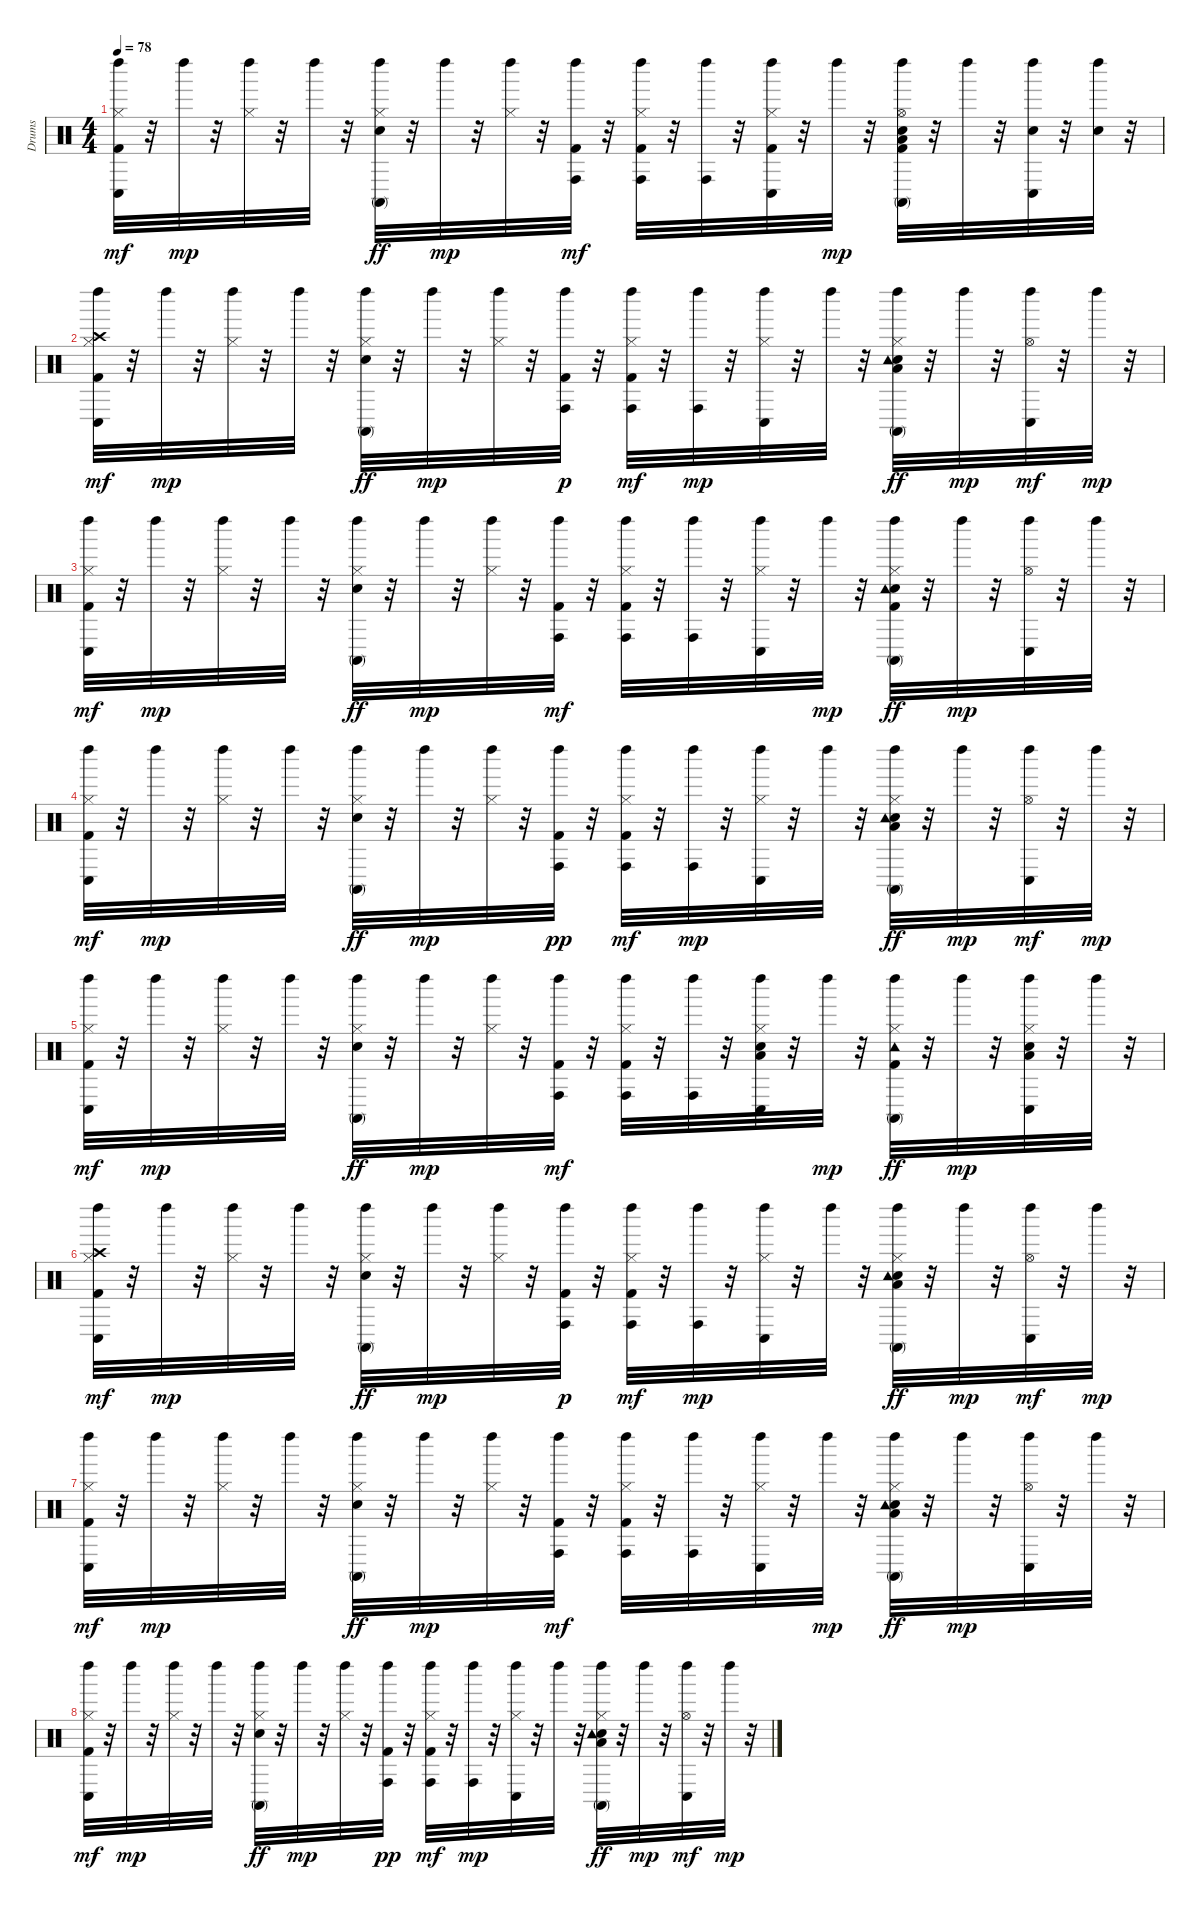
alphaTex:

\track ("Drums               " "Drums     ") {instrument percussion}
\staff {score}
\articulation defaults
\ts (4 4)
\tempo 78
\clef neutral
\ks c
("Kick (hit) 2" "Hi-Hat (closed)" "Left Maraca (hit)" "Conga low (hit)").32{dy mf} r.32 "Left Maraca (hit)".32{dy mp} r.32 ("Hi-Hat (closed)" "Left Maraca (hit)").32 r.32 "Left Maraca (hit)".32 r.32 ("Snare (hit) 2" "Hi-Hat (closed)" "Left Maraca (hit)" "Conga high (mute)").32{dy ff} r.32 "Left Maraca (hit)".32{dy mp} r.32 ("Hi-Hat (closed)" "Left Maraca (hit)").32 r.32 ("Kick (hit) 2" "Left Maraca (hit)" "Conga high (hit)").32{dy mf} r.32 ("Kick (hit) 2" "Hi-Hat (closed)" "Left Maraca (hit)" "Conga high (hit)").32 r.32 ("Left Maraca (hit)" "Conga high (hit)").32 r.32 ("Kick (hit) 2" "Hi-Hat (closed)" "Left Maraca (hit)" "Conga low (hit)").32 r.32 "Left Maraca (hit)".32{dy mp} r.32 ("Kick (hit) 2" "Snare (hit) 2" "Hi-Hat (open)" "Left Maraca (hit)" "Conga high (mute)" "Low Floor Tom (hit)").32 r.32 "Left Maraca (hit)".32 r.32 ("Snare (hit) 2" "Left Maraca (hit)" "Conga low (hit)").32 r.32 ("Snare (hit) 2" "Left Maraca (hit)").32 r.32 |
("Kick (hit) 2" "Hi-Hat (closed)" "Left Maraca (hit)" "Crash high (hit)" "Conga low (hit)").32{dy mf} r.32 "Left Maraca (hit)".32{dy mp} r.32 ("Hi-Hat (closed)" "Left Maraca (hit)").32 r.32 "Left Maraca (hit)".32 r.32 ("Snare (hit) 2" "Hi-Hat (closed)" "Left Maraca (hit)" "Conga high (mute)").32{dy ff} r.32 "Left Maraca (hit)".32{dy mp} r.32 ("Hi-Hat (closed)" "Left Maraca (hit)").32 r.32 ("Kick (hit) 2" "Left Maraca (hit)" "Conga high (hit)").32{dy p} r.32 ("Kick (hit) 2" "Hi-Hat (closed)" "Left Maraca (hit)" "Conga high (hit)").32{dy mf} r.32 ("Left Maraca (hit)" "Conga high (hit)").32{dy mp} r.32 ("Hi-Hat (closed)" "Left Maraca (hit)" "Conga low (hit)").32 r.32 "Left Maraca (hit)".32 r.32 ("Snare (hit) 2" "Hi-Hat (closed)" "Left Maraca (hit)" "Low Floor Tom (hit)" "Conga high (mute)" "Tambourine (hit)").32{dy ff} r.32 "Left Maraca (hit)".32{dy mp} r.32 ("Hi-Hat (open)" "Left Maraca (hit)" "Conga low (hit)").32{dy mf} r.32 "Left Maraca (hit)".32{dy mp} r.32 |
("Kick (hit) 2" "Hi-Hat (closed)" "Left Maraca (hit)" "Conga low (hit)").32{dy mf} r.32 "Left Maraca (hit)".32{dy mp} r.32 ("Hi-Hat (closed)" "Left Maraca (hit)").32 r.32 "Left Maraca (hit)".32 r.32 ("Snare (hit) 2" "Hi-Hat (closed)" "Left Maraca (hit)" "Conga high (mute)").32{dy ff} r.32 "Left Maraca (hit)".32{dy mp} r.32 ("Hi-Hat (closed)" "Left Maraca (hit)").32 r.32 ("Kick (hit) 2" "Left Maraca (hit)" "Conga high (hit)").32{dy mf} r.32 ("Kick (hit) 2" "Hi-Hat (closed)" "Left Maraca (hit)" "Conga high (hit)").32 r.32 ("Left Maraca (hit)" "Conga high (hit)").32 r.32 ("Hi-Hat (closed)" "Left Maraca (hit)" "Conga low (hit)").32 r.32 "Left Maraca (hit)".32{dy mp} r.32 ("Kick (hit) 2" "Snare (hit) 2" "Hi-Hat (closed)" "Left Maraca (hit)" "Conga high (mute)" "Tambourine (hit)").32{dy ff} r.32 "Left Maraca (hit)".32{dy mp} r.32 ("Hi-Hat (open)" "Left Maraca (hit)" "Conga low (hit)").32 r.32 "Left Maraca (hit)".32 r.32 |
("Kick (hit) 2" "Hi-Hat (closed)" "Left Maraca (hit)" "Conga low (hit)").32{dy mf} r.32 "Left Maraca (hit)".32{dy mp} r.32 ("Hi-Hat (closed)" "Left Maraca (hit)").32 r.32 "Left Maraca (hit)".32 r.32 ("Snare (hit) 2" "Hi-Hat (closed)" "Left Maraca (hit)" "Conga high (mute)").32{dy ff} r.32 "Left Maraca (hit)".32{dy mp} r.32 ("Hi-Hat (closed)" "Left Maraca (hit)").32 r.32 ("Kick (hit) 2" "Left Maraca (hit)" "Conga high (hit)").32{dy pp} r.32 ("Kick (hit) 2" "Hi-Hat (closed)" "Left Maraca (hit)" "Conga high (hit)").32{dy mf} r.32 ("Left Maraca (hit)" "Conga high (hit)").32{dy mp} r.32 ("Hi-Hat (closed)" "Left Maraca (hit)" "Conga low (hit)").32 r.32 "Left Maraca (hit)".32 r.32 ("Snare (hit) 2" "Hi-Hat (closed)" "Left Maraca (hit)" "Low Floor Tom (hit)" "Conga high (mute)" "Tambourine (hit)").32{dy ff} r.32 "Left Maraca (hit)".32{dy mp} r.32 ("Hi-Hat (open)" "Left Maraca (hit)" "Conga low (hit)").32{dy mf} r.32 "Left Maraca (hit)".32{dy mp} r.32 |
("Kick (hit) 2" "Hi-Hat (closed)" "Left Maraca (hit)" "Conga low (hit)").32{dy mf} r.32 "Left Maraca (hit)".32{dy mp} r.32 ("Hi-Hat (closed)" "Left Maraca (hit)").32 r.32 "Left Maraca (hit)".32 r.32 ("Snare (hit) 2" "Hi-Hat (closed)" "Left Maraca (hit)" "Conga high (mute)").32{dy ff} r.32 "Left Maraca (hit)".32{dy mp} r.32 ("Hi-Hat (closed)" "Left Maraca (hit)").32 r.32 ("Kick (hit) 2" "Left Maraca (hit)" "Conga high (hit)").32{dy mf} r.32 ("Kick (hit) 2" "Hi-Hat (closed)" "Left Maraca (hit)" "Conga high (hit)").32 r.32 ("Left Maraca (hit)" "Conga high (hit)").32 r.32 ("Snare (hit) 2" "Hi-Hat (closed)" "Left Maraca (hit)" "Low Floor Tom (hit)" "Conga low (hit)").32 r.32 "Left Maraca (hit)".32{dy mp} r.32 ("Kick (hit) 2" "Hi-Hat (closed)" "Left Maraca (hit)" "Conga high (mute)" "Tambourine (hit)").32{dy ff} r.32 "Left Maraca (hit)".32{dy mp} r.32 ("Snare (hit) 2" "Hi-Hat (closed)" "Left Maraca (hit)" "Low Floor Tom (hit)" "Conga low (hit)").32 r.32 "Left Maraca (hit)".32 r.32 |
("Kick (hit) 2" "Hi-Hat (closed)" "Left Maraca (hit)" "Crash high (hit)" "Conga low (hit)").32{dy mf} r.32 "Left Maraca (hit)".32{dy mp} r.32 ("Hi-Hat (closed)" "Left Maraca (hit)").32 r.32 "Left Maraca (hit)".32 r.32 ("Snare (hit) 2" "Hi-Hat (closed)" "Left Maraca (hit)" "Conga high (mute)").32{dy ff} r.32 "Left Maraca (hit)".32{dy mp} r.32 ("Hi-Hat (closed)" "Left Maraca (hit)").32 r.32 ("Kick (hit) 2" "Left Maraca (hit)" "Conga high (hit)").32{dy p} r.32 ("Kick (hit) 2" "Hi-Hat (closed)" "Left Maraca (hit)" "Conga high (hit)").32{dy mf} r.32 ("Left Maraca (hit)" "Conga high (hit)").32{dy mp} r.32 ("Hi-Hat (closed)" "Left Maraca (hit)" "Conga low (hit)").32 r.32 "Left Maraca (hit)".32 r.32 ("Snare (hit) 2" "Hi-Hat (closed)" "Left Maraca (hit)" "Low Floor Tom (hit)" "Conga high (mute)" "Tambourine (hit)").32{dy ff} r.32 "Left Maraca (hit)".32{dy mp} r.32 ("Hi-Hat (open)" "Left Maraca (hit)" "Conga low (hit)").32{dy mf} r.32 "Left Maraca (hit)".32{dy mp} r.32 |
("Kick (hit) 2" "Hi-Hat (closed)" "Left Maraca (hit)" "Conga low (hit)").32{dy mf} r.32 "Left Maraca (hit)".32{dy mp} r.32 ("Hi-Hat (closed)" "Left Maraca (hit)").32 r.32 "Left Maraca (hit)".32 r.32 ("Snare (hit) 2" "Hi-Hat (closed)" "Left Maraca (hit)" "Conga high (mute)").32{dy ff} r.32 "Left Maraca (hit)".32{dy mp} r.32 ("Hi-Hat (closed)" "Left Maraca (hit)").32 r.32 ("Kick (hit) 2" "Left Maraca (hit)" "Conga high (hit)").32{dy mf} r.32 ("Kick (hit) 2" "Hi-Hat (closed)" "Left Maraca (hit)" "Conga high (hit)").32 r.32 ("Left Maraca (hit)" "Conga high (hit)").32 r.32 ("Hi-Hat (closed)" "Left Maraca (hit)" "Conga low (hit)").32 r.32 "Left Maraca (hit)".32{dy mp} r.32 ("Snare (hit) 2" "Hi-Hat (closed)" "Left Maraca (hit)" "Low Floor Tom (hit)" "Conga high (mute)" "Tambourine (hit)").32{dy ff} r.32 "Left Maraca (hit)".32{dy mp} r.32 ("Hi-Hat (open)" "Left Maraca (hit)" "Conga low (hit)").32 r.32 "Left Maraca (hit)".32 r.32 |
("Kick (hit) 2" "Hi-Hat (closed)" "Left Maraca (hit)" "Conga low (hit)").32{dy mf} r.32 "Left Maraca (hit)".32{dy mp} r.32 ("Hi-Hat (closed)" "Left Maraca (hit)").32 r.32 "Left Maraca (hit)".32 r.32 ("Snare (hit) 2" "Hi-Hat (closed)" "Left Maraca (hit)" "Conga high (mute)").32{dy ff} r.32 "Left Maraca (hit)".32{dy mp} r.32 ("Hi-Hat (closed)" "Left Maraca (hit)").32 r.32 ("Kick (hit) 2" "Left Maraca (hit)" "Conga high (hit)").32{dy pp} r.32 ("Kick (hit) 2" "Hi-Hat (closed)" "Left Maraca (hit)" "Conga high (hit)").32{dy mf} r.32 ("Left Maraca (hit)" "Conga high (hit)").32{dy mp} r.32 ("Hi-Hat (closed)" "Left Maraca (hit)" "Conga low (hit)").32 r.32 "Left Maraca (hit)".32 r.32 ("Snare (hit) 2" "Hi-Hat (closed)" "Left Maraca (hit)" "Conga high (mute)" "Low Floor Tom (hit)" "Tambourine (hit)").32{dy ff} r.32 "Left Maraca (hit)".32{dy mp} r.32 ("Hi-Hat (open)" "Left Maraca (hit)" "Conga low (hit)").32{dy mf} r.32 "Left Maraca (hit)".32{dy mp} r.32
